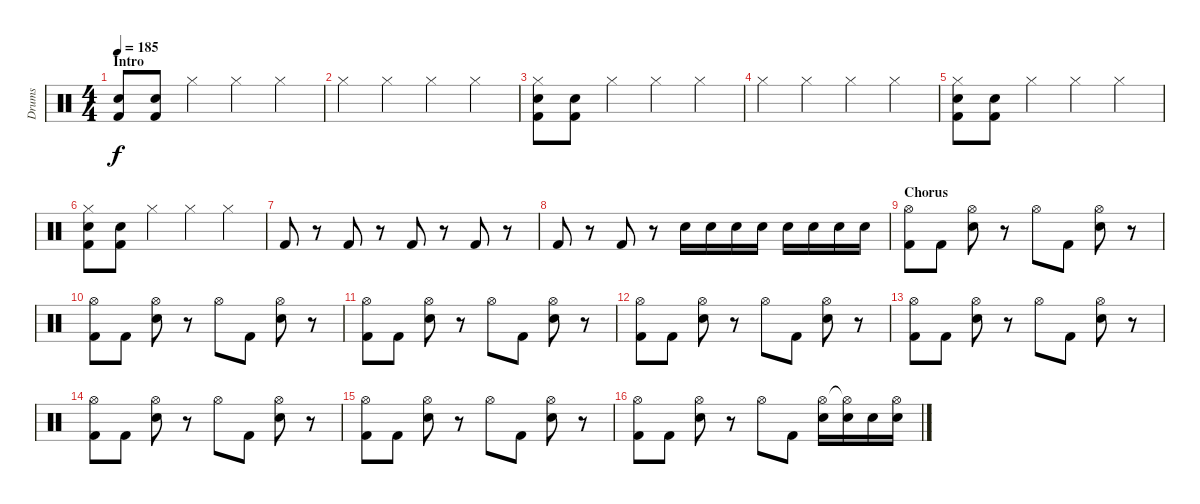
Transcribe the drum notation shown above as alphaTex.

\track ("Drums" "Drums") {instrument percussion}
\staff {score}
\articulation defaults
\ts (4 4)
\section ("" "Intro")
\tempo 185
\clef neutral
\ks c
("Kick (hit) 2" "Electric Snare (hit)").8{dy f} ("Kick (hit) 2" "Electric Snare (hit)").8 "Hi-Hat (closed)".4 "Hi-Hat (closed)".4 "Hi-Hat (closed)".4 |
"Hi-Hat (closed)".4 "Hi-Hat (closed)".4 "Hi-Hat (closed)".4 "Hi-Hat (closed)".4 |
("Hi-Hat (closed)" "Kick (hit) 2" "Electric Snare (hit)").8 ("Kick (hit) 2" "Electric Snare (hit)").8 "Hi-Hat (closed)".4 "Hi-Hat (closed)".4 "Hi-Hat (closed)".4 |
"Hi-Hat (closed)".4 "Hi-Hat (closed)".4 "Hi-Hat (closed)".4 "Hi-Hat (closed)".4 |
("Hi-Hat (closed)" "Kick (hit) 2" "Electric Snare (hit)").8 ("Kick (hit) 2" "Electric Snare (hit)").8 "Hi-Hat (closed)".4 "Hi-Hat (closed)".4 "Hi-Hat (closed)".4 |
("Hi-Hat (closed)" "Kick (hit) 2" "Electric Snare (hit)").8 ("Kick (hit) 2" "Electric Snare (hit)").8 "Hi-Hat (closed)".4 "Hi-Hat (closed)".4 "Hi-Hat (closed)".4 |
"Kick (hit) 2".8 r.8 "Kick (hit) 2".8 r.8 "Kick (hit) 2".8 r.8 "Kick (hit) 2".8 r.8 |
"Kick (hit) 2".8 r.8 "Kick (hit) 2".8 r.8 "Electric Snare (hit)".16 "Electric Snare (hit)".16 "Electric Snare (hit)".16 "Electric Snare (hit)".16 "Electric Snare (hit)".16 "Electric Snare (hit)".16 "Electric Snare (hit)".16 "Electric Snare (hit)".16 |
\section ("" "Chorus")
("Hi-Hat (open)" "Kick (hit) 2").8 "Kick (hit) 2".8 ("Hi-Hat (open)" "Electric Snare (hit)").8 r.8 "Hi-Hat (open)".8 "Kick (hit) 2".8 ("Hi-Hat (open)" "Electric Snare (hit)").8 r.8 |
("Hi-Hat (open)" "Kick (hit) 2").8 "Kick (hit) 2".8 ("Hi-Hat (open)" "Electric Snare (hit)").8 r.8 "Hi-Hat (open)".8 "Kick (hit) 2".8 ("Hi-Hat (open)" "Electric Snare (hit)").8 r.8 |
("Hi-Hat (open)" "Kick (hit) 2").8 "Kick (hit) 2".8 ("Hi-Hat (open)" "Electric Snare (hit)").8 r.8 "Hi-Hat (open)".8 "Kick (hit) 2".8 ("Hi-Hat (open)" "Electric Snare (hit)").8 r.8 |
("Hi-Hat (open)" "Kick (hit) 2").8 "Kick (hit) 2".8 ("Hi-Hat (open)" "Electric Snare (hit)").8 r.8 "Hi-Hat (open)".8 "Kick (hit) 2".8 ("Hi-Hat (open)" "Electric Snare (hit)").8 r.8 |
("Hi-Hat (open)" "Kick (hit) 2").8 "Kick (hit) 2".8 ("Hi-Hat (open)" "Electric Snare (hit)").8 r.8 "Hi-Hat (open)".8 "Kick (hit) 2".8 ("Hi-Hat (open)" "Electric Snare (hit)").8 r.8 |
("Hi-Hat (open)" "Kick (hit) 2").8 "Kick (hit) 2".8 ("Hi-Hat (open)" "Electric Snare (hit)").8 r.8 "Hi-Hat (open)".8 "Kick (hit) 2".8 ("Hi-Hat (open)" "Electric Snare (hit)").8 r.8 |
("Hi-Hat (open)" "Kick (hit) 2").8 "Kick (hit) 2".8 ("Hi-Hat (open)" "Electric Snare (hit)").8 r.8 "Hi-Hat (open)".8 "Kick (hit) 2".8 ("Hi-Hat (open)" "Electric Snare (hit)").8 r.8 |
("Hi-Hat (open)" "Kick (hit) 2").8 "Kick (hit) 2".8 ("Hi-Hat (open)" "Electric Snare (hit)").8 r.8 "Hi-Hat (open)".8 "Kick (hit) 2".8 ("Hi-Hat (open)" "Electric Snare (hit)").16 ("Hi-Hat (open)"{t} "Electric Snare (hit)").16 "Electric Snare (hit)".16 ("Hi-Hat (open)" "Electric Snare (hit)").16
